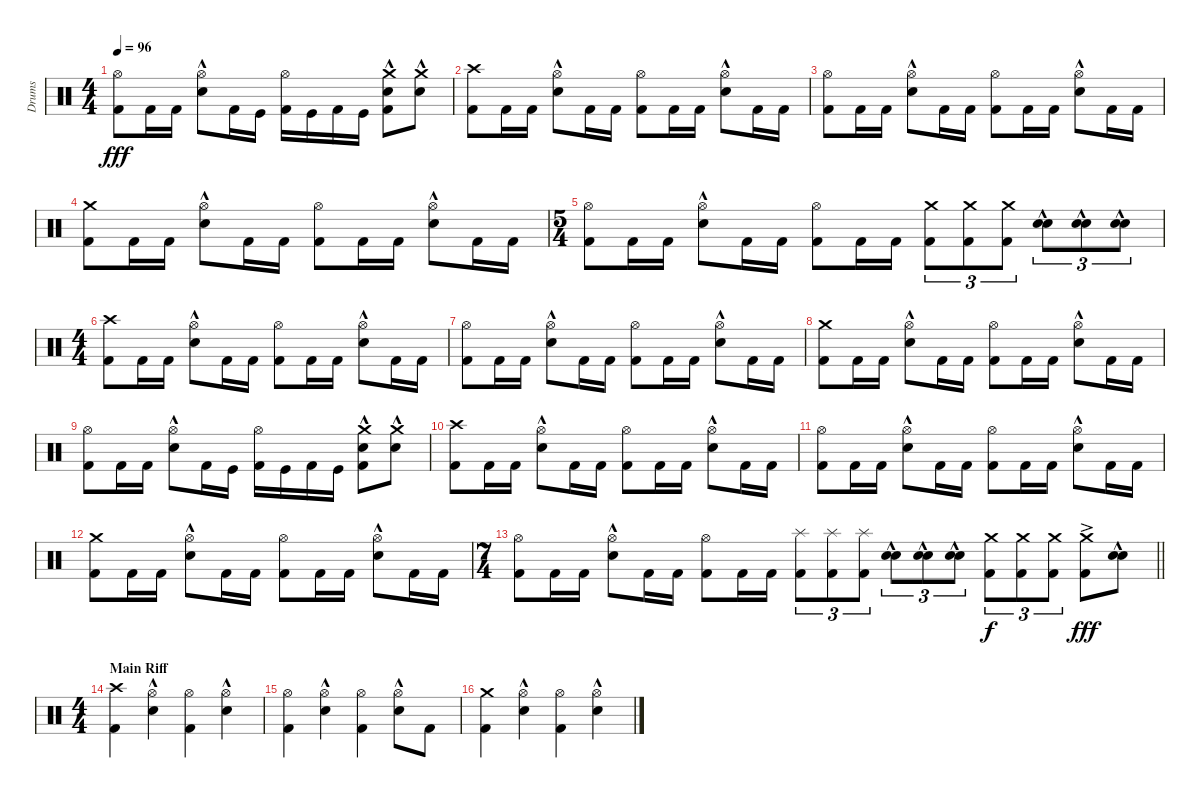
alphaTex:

\track ("Drums" "Drums") {instrument percussion}
\staff {score}
\articulation defaults
\ts (4 4)
\tempo 96
\clef neutral
\ks c
("Hi-Hat (open)" "Kick (hit) 2").8{dy fff} "Kick (hit) 2".16 "Kick (hit) 2".16 ("Hi-Hat (open)" "Electric Snare (hit)"{hac}).8 "Kick (hit) 2".16 "Kick (hit)".16 ("Hi-Hat (open)" "Kick (hit) 2").16 "Kick (hit)".16 "Kick (hit) 2".16 "Kick (hit)".16 ("Crash medium (hit)" "Electric Snare (hit)"{hac} "Kick (hit) 2").8 ("Crash medium (hit)" "Electric Snare (hit)"{hac}).8 |
("Crash high (hit)" "Kick (hit) 2").8 "Kick (hit) 2".16 "Kick (hit) 2".16 ("Hi-Hat (open)" "Electric Snare (hit)"{hac}).8 "Kick (hit) 2".16 "Kick (hit) 2".16 ("Hi-Hat (open)" "Kick (hit) 2").8 "Kick (hit) 2".16 "Kick (hit) 2".16 ("Hi-Hat (open)" "Electric Snare (hit)"{hac}).8 "Kick (hit) 2".16 "Kick (hit) 2".16 |
("Hi-Hat (open)" "Kick (hit) 2").8 "Kick (hit) 2".16 "Kick (hit) 2".16 ("Hi-Hat (open)" "Electric Snare (hit)"{hac}).8 "Kick (hit) 2".16 "Kick (hit) 2".16 ("Hi-Hat (open)" "Kick (hit) 2").8 "Kick (hit) 2".16 "Kick (hit) 2".16 ("Hi-Hat (open)" "Electric Snare (hit)"{hac}).8 "Kick (hit) 2".16 "Kick (hit) 2".16 |
("Crash medium (hit)" "Kick (hit) 2").8 "Kick (hit) 2".16 "Kick (hit) 2".16 ("Hi-Hat (open)" "Electric Snare (hit)"{hac}).8 "Kick (hit) 2".16 "Kick (hit) 2".16 ("Hi-Hat (open)" "Kick (hit) 2").8 "Kick (hit) 2".16 "Kick (hit) 2".16 ("Hi-Hat (open)" "Electric Snare (hit)"{hac}).8 "Kick (hit) 2".16 "Kick (hit) 2".16 |
\ts (5 4)
("Hi-Hat (open)" "Kick (hit) 2").8 "Kick (hit) 2".16 "Kick (hit) 2".16 ("Hi-Hat (open)" "Electric Snare (hit)"{hac}).8 "Kick (hit) 2".16 "Kick (hit) 2".16 ("Hi-Hat (open)" "Kick (hit) 2").8 "Kick (hit) 2".16 "Kick (hit) 2".16 ("Crash medium (hit)" "Kick (hit) 2").8{tu (3 2)} ("Crash medium (hit)" "Kick (hit) 2").8{tu (3 2)} ("Crash medium (hit)" "Kick (hit) 2").8{tu (3 2)} ("Electric Snare (hit)"{hac} "Electric Snare (hit)"{hac}).8{tu (3 2) bd 120} ("Electric Snare (hit)"{hac} "Electric Snare (hit)"{hac}).8{tu (3 2) bd 120} ("Electric Snare (hit)"{hac} "Electric Snare (hit)"{hac}).8{tu (3 2) bd 120} |
\ts (4 4)
("Crash high (hit)" "Kick (hit) 2").8 "Kick (hit) 2".16 "Kick (hit) 2".16 ("Hi-Hat (open)" "Electric Snare (hit)"{hac}).8 "Kick (hit) 2".16 "Kick (hit) 2".16 ("Hi-Hat (open)" "Kick (hit) 2").8 "Kick (hit) 2".16 "Kick (hit) 2".16 ("Hi-Hat (open)" "Electric Snare (hit)"{hac}).8 "Kick (hit) 2".16 "Kick (hit) 2".16 |
("Hi-Hat (open)" "Kick (hit) 2").8 "Kick (hit) 2".16 "Kick (hit) 2".16 ("Hi-Hat (open)" "Electric Snare (hit)"{hac}).8 "Kick (hit) 2".16 "Kick (hit) 2".16 ("Hi-Hat (open)" "Kick (hit) 2").8 "Kick (hit) 2".16 "Kick (hit) 2".16 ("Hi-Hat (open)" "Electric Snare (hit)"{hac}).8 "Kick (hit) 2".16 "Kick (hit) 2".16 |
("Crash medium (hit)" "Kick (hit) 2").8 "Kick (hit) 2".16 "Kick (hit) 2".16 ("Hi-Hat (open)" "Electric Snare (hit)"{hac}).8 "Kick (hit) 2".16 "Kick (hit) 2".16 ("Hi-Hat (open)" "Kick (hit) 2").8 "Kick (hit) 2".16 "Kick (hit) 2".16 ("Hi-Hat (open)" "Electric Snare (hit)"{hac}).8 "Kick (hit) 2".16 "Kick (hit) 2".16 |
("Hi-Hat (open)" "Kick (hit) 2").8 "Kick (hit) 2".16 "Kick (hit) 2".16 ("Hi-Hat (open)" "Electric Snare (hit)"{hac}).8 "Kick (hit) 2".16 "Kick (hit)".16 ("Hi-Hat (open)" "Kick (hit) 2").16 "Kick (hit)".16 "Kick (hit) 2".16 "Kick (hit)".16 ("Crash medium (hit)" "Electric Snare (hit)"{hac} "Kick (hit) 2").8 ("Crash medium (hit)" "Electric Snare (hit)"{hac}).8 |
("Crash high (hit)" "Kick (hit) 2").8 "Kick (hit) 2".16 "Kick (hit) 2".16 ("Hi-Hat (open)" "Electric Snare (hit)"{hac}).8 "Kick (hit) 2".16 "Kick (hit) 2".16 ("Hi-Hat (open)" "Kick (hit) 2").8 "Kick (hit) 2".16 "Kick (hit) 2".16 ("Hi-Hat (open)" "Electric Snare (hit)"{hac}).8 "Kick (hit) 2".16 "Kick (hit) 2".16 |
("Hi-Hat (open)" "Kick (hit) 2").8 "Kick (hit) 2".16 "Kick (hit) 2".16 ("Hi-Hat (open)" "Electric Snare (hit)"{hac}).8 "Kick (hit) 2".16 "Kick (hit) 2".16 ("Hi-Hat (open)" "Kick (hit) 2").8 "Kick (hit) 2".16 "Kick (hit) 2".16 ("Hi-Hat (open)" "Electric Snare (hit)"{hac}).8 "Kick (hit) 2".16 "Kick (hit) 2".16 |
("Crash medium (hit)" "Kick (hit) 2").8 "Kick (hit) 2".16 "Kick (hit) 2".16 ("Hi-Hat (open)" "Electric Snare (hit)"{hac}).8 "Kick (hit) 2".16 "Kick (hit) 2".16 ("Hi-Hat (open)" "Kick (hit) 2").8 "Kick (hit) 2".16 "Kick (hit) 2".16 ("Hi-Hat (open)" "Electric Snare (hit)"{hac}).8 "Kick (hit) 2".16 "Kick (hit) 2".16 |
\ts (7 4)
\barLineRight lightlight
("Hi-Hat (open)" "Kick (hit) 2").8 "Kick (hit) 2".16 "Kick (hit) 2".16 ("Hi-Hat (open)" "Electric Snare (hit)"{hac}).8 "Kick (hit) 2".16 "Kick (hit) 2".16 ("Hi-Hat (open)" "Kick (hit) 2").8 "Kick (hit) 2".16 "Kick (hit) 2".16 ("Splash (hit)" "Kick (hit) 2").8{tu (3 2)} ("Splash (hit)" "Kick (hit) 2").8{tu (3 2)} ("Splash (hit)" "Kick (hit) 2").8{tu (3 2)} ("Electric Snare (hit)"{hac} "Electric Snare (hit)"{hac}).8{tu (3 2) bd 120} ("Electric Snare (hit)"{hac} "Electric Snare (hit)"{hac}).8{tu (3 2) bd 120} ("Electric Snare (hit)"{hac} "Electric Snare (hit)"{hac}).8{tu (3 2) bd 120} ("Crash medium (hit)" "Kick (hit) 2").8{tu (3 2) dy f} ("Crash medium (hit)" "Kick (hit) 2").8{tu (3 2)} ("Crash medium (hit)" "Kick (hit) 2").8{tu (3 2)} ("Crash medium (hit)"{ac} "Kick (hit) 2").8{dy fff} ("Electric Snare (hit)"{hac} "Electric Snare (hit)"{hac}).8{bd 120} |
\ts (4 4)
\section ("" "Main Riff")
("Crash high (hit)" "Kick (hit) 2").4 ("Hi-Hat (open)" "Electric Snare (hit)"{hac}).4 ("Hi-Hat (open)" "Kick (hit) 2").4 ("Hi-Hat (open)" "Electric Snare (hit)"{hac}).4 |
("Hi-Hat (open)" "Kick (hit) 2").4 ("Hi-Hat (open)" "Electric Snare (hit)"{hac}).4 ("Hi-Hat (open)" "Kick (hit) 2").4 ("Hi-Hat (open)" "Electric Snare (hit)"{hac}).8 "Kick (hit) 2".8 |
("Crash medium (hit)" "Kick (hit) 2").4 ("Hi-Hat (open)" "Electric Snare (hit)"{hac}).4 ("Hi-Hat (open)" "Kick (hit) 2").4 ("Hi-Hat (open)" "Electric Snare (hit)"{hac}).4
